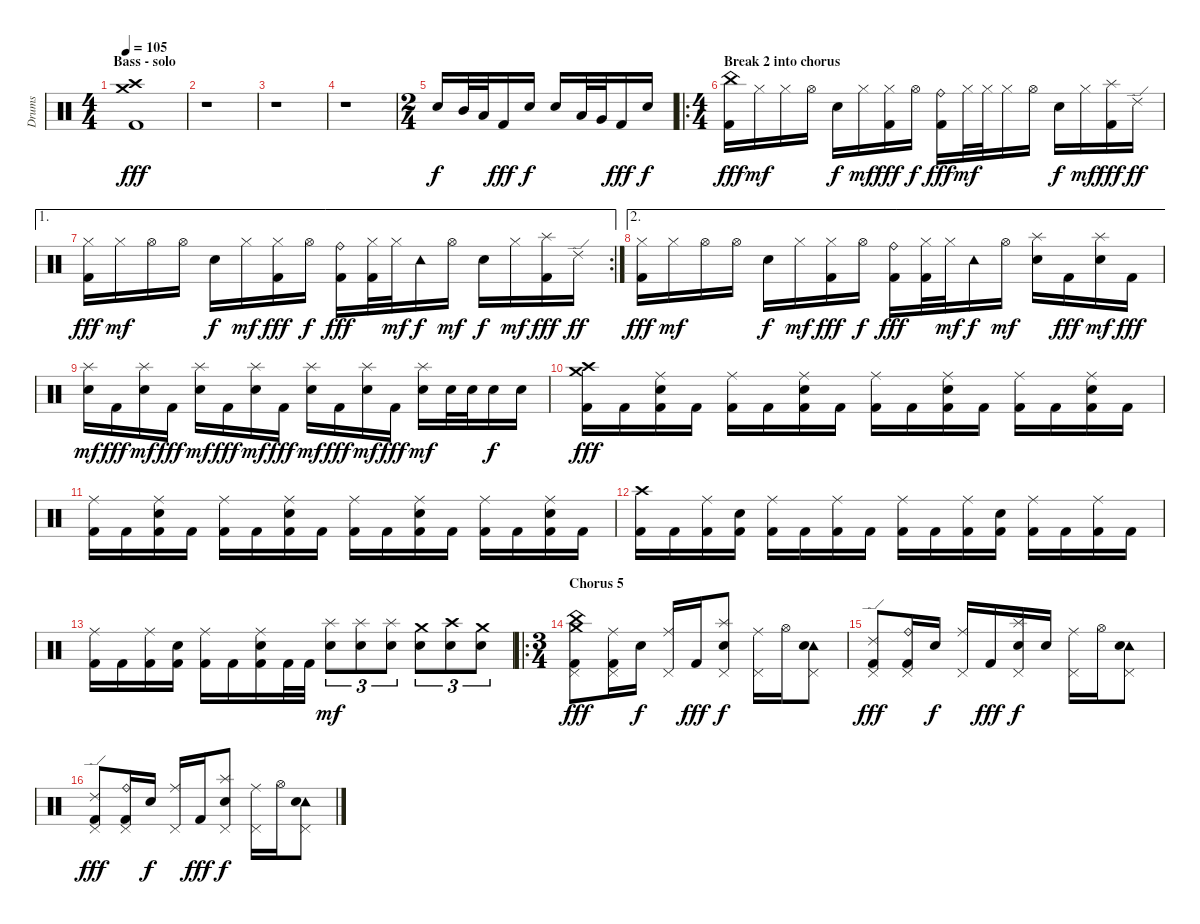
\track ("Drums" "Drums") {instrument percussion}
\staff {score}
\articulation defaults
\ts (4 4)
\section ("" "Bass - solo")
\tempo 105
\clef neutral
\ks c
("Crash medium (hit)" "Crash high (hit)" "Kick (hit) 2").1{dy fff} |
r.1 |
r.1 |
r.1 |
\ts (2 4)
"Electric Snare (hit)".16{dy f} "Mid Tom (hit)".32 "Low Tom (hit)".32 "Kick (hit) 2".16{dy fff} "Electric Snare (hit)".16{dy f} "Electric Snare (hit)".16 "Low Tom (hit)".32 "Very Low Tom (hit)".32 "Kick (hit) 2".16{dy fff} "Electric Snare (hit)".16{dy f} |
\ro
\ts (4 4)
\section ("" "Break 2 into chorus")
("China (hit)" "Kick (hit) 2").16{dy fff} "Hi-Hat (closed)".16{dy mf} "Hi-Hat (closed)".16 "Hi-Hat (open)".16 "Electric Snare (hit)".16{dy f} "Hi-Hat (closed)".16{dy mf} ("Hi-Hat (closed)" "Kick (hit) 2").16{dy fff} "Hi-Hat (open)".16{dy f} ("Ride (bell)" "Kick (hit) 2").16{dy fff} "Hi-Hat (closed)".32{dy mf} "Hi-Hat (closed)".32 "Hi-Hat (closed)".16 "Hi-Hat (open)".16 "Electric Snare (hit)".16{dy f} "Hi-Hat (closed)".16{dy mf} ("Splash (hit)" "Kick (hit) 2").16{dy fff} "Ride (edge) 2".16{dy ff} |
\ae 1
\rc 2
("Hi-Hat (closed)" "Kick (hit) 2").16{dy fff} "Hi-Hat (closed)".16{dy mf} "Hi-Hat (open)".16 "Hi-Hat (open)".16 "Electric Snare (hit)".16{dy f} "Hi-Hat (closed)".16{dy mf} ("Hi-Hat (closed)" "Kick (hit) 2").16{dy fff} "Hi-Hat (open)".16{dy f} ("Ride (bell)" "Kick (hit) 2").16{dy fff} ("Hi-Hat (closed)" "Kick (hit) 2").32 "Hi-Hat (closed)".32{dy mf} "Tambourine (hit)".16{dy f} "Hi-Hat (open)".16{dy mf} "Electric Snare (hit)".16{dy f} "Hi-Hat (closed)".16{dy mf} ("Splash (hit)" "Kick (hit) 2").16{dy fff} "Ride (edge) 2".16{dy ff} |
\ae 2
("Hi-Hat (closed)" "Kick (hit) 2").16{dy fff} "Hi-Hat (closed)".16{dy mf} "Hi-Hat (open)".16 "Hi-Hat (open)".16 "Electric Snare (hit)".16{dy f} "Hi-Hat (closed)".16{dy mf} ("Hi-Hat (closed)" "Kick (hit) 2").16{dy fff} "Hi-Hat (open)".16{dy f} ("Ride (bell)" "Kick (hit) 2").16{dy fff} ("Hi-Hat (closed)" "Kick (hit) 2").32 "Hi-Hat (closed)".32{dy mf} "Tambourine (hit)".16{dy f} "Hi-Hat (open)".16{dy mf} ("Splash (hit)" "Electric Snare (hit)").16 "Kick (hit) 2".16{dy fff} ("Splash (hit)" "Electric Snare (hit)").16{dy mf} "Kick (hit) 2".16{dy fff} |
("Splash (hit)" "Electric Snare (hit)").16{dy mf} "Kick (hit) 2".16{dy fff} ("Splash (hit)" "Electric Snare (hit)").16{dy mf} "Kick (hit) 2".16{dy fff} ("Splash (hit)" "Electric Snare (hit)").16{dy mf} "Kick (hit) 2".16{dy fff} ("Splash (hit)" "Electric Snare (hit)").16{dy mf} "Kick (hit) 2".16{dy fff} ("Splash (hit)" "Electric Snare (hit)").16{dy mf} "Kick (hit) 2".16{dy fff} ("Splash (hit)" "Electric Snare (hit)").16{dy mf} "Kick (hit) 2".16{dy fff} ("Splash (hit)" "Electric Snare (hit)").16{dy mf} "Electric Snare (hit)".32 "Electric Snare (hit)".32 "Electric Snare (hit)".16{dy f} "Electric Snare (hit)".16 |
("Crash medium (hit)" "Crash high (hit)" "Kick (hit) 2").16{dy fff} "Kick (hit) 2".16 ("Ride (middle)" "Electric Snare (hit)" "Kick (hit) 2").16 "Kick (hit) 2".16 ("Ride (middle)" "Kick (hit) 2").16 "Kick (hit) 2".16 ("Ride (middle)" "Electric Snare (hit)" "Kick (hit) 2").16 "Kick (hit) 2".16 ("Ride (middle)" "Kick (hit) 2").16 "Kick (hit) 2".16 ("Ride (middle)" "Electric Snare (hit)" "Kick (hit) 2").16 "Kick (hit) 2".16 ("Ride (middle)" "Kick (hit) 2").16 "Kick (hit) 2".16 ("Ride (middle)" "Electric Snare (hit)" "Kick (hit) 2").16 "Kick (hit) 2".16 |
("Ride (middle)" "Kick (hit) 2").16 "Kick (hit) 2".16 ("Ride (middle)" "Electric Snare (hit)" "Kick (hit) 2").16 "Kick (hit) 2".16 ("Ride (middle)" "Kick (hit) 2").16 "Kick (hit) 2".16 ("Ride (middle)" "Electric Snare (hit)" "Kick (hit) 2").16 "Kick (hit) 2".16 ("Ride (middle)" "Kick (hit) 2").16 "Kick (hit) 2".16 ("Ride (middle)" "Electric Snare (hit)" "Kick (hit) 2").16 "Kick (hit) 2".16 ("Ride (middle)" "Kick (hit) 2").16 "Kick (hit) 2".16 ("Ride (middle)" "Electric Snare (hit)" "Kick (hit) 2").16 "Kick (hit) 2".16 |
("Crash high (hit)" "Kick (hit) 2").16 "Kick (hit) 2".16 ("Ride (middle)" "Kick (hit) 2").16 ("Electric Snare (hit)" "Kick (hit) 2").16 ("Ride (middle)" "Kick (hit) 2").16 "Kick (hit) 2".16 ("Ride (middle)" "Kick (hit) 2").16 "Kick (hit) 2".16 ("Ride (middle)" "Kick (hit) 2").16 "Kick (hit) 2".16 ("Ride (middle)" "Kick (hit) 2").16 ("Electric Snare (hit)" "Kick (hit) 2").16 ("Ride (middle)" "Kick (hit) 2").16 "Kick (hit) 2".16 ("Ride (middle)" "Kick (hit) 2").16 "Kick (hit) 2".16 |
("Ride (middle)" "Kick (hit) 2").16 "Kick (hit) 2".16 ("Ride (middle)" "Kick (hit) 2").16 ("Electric Snare (hit)" "Kick (hit) 2").16 ("Ride (middle)" "Kick (hit) 2").16 "Kick (hit) 2".16 ("Ride (middle)" "Electric Snare (hit)" "Kick (hit) 2").16 "Kick (hit) 2".32 "Kick (hit) 2".32 ("Splash (hit)" "Electric Snare (hit)").8{tu (3 2) dy mf} ("Splash (hit)" "Electric Snare (hit)").8{tu (3 2)} ("Splash (hit)" "Electric Snare (hit)").8{tu (3 2)} ("Crash medium (hit)" "Electric Snare (hit)").8{tu (3 2)} ("Crash high (hit)" "Electric Snare (hit)").8{tu (3 2)} ("Crash medium (hit)" "Electric Snare (hit)").8{tu (3 2)} |
\ro
\ts (3 4)
\section ("" "Chorus 5")
("China (hit)" "Crash medium (hit)" "Pedal Hi-Hat (hit)" "Kick (hit) 2").8{dy fff} ("Ride (middle)" "Pedal Hi-Hat (hit)" "Kick (hit) 2").16 "Electric Snare (hit)".16{dy f} ("Ride (middle)" "Pedal Hi-Hat (hit)").16 "Kick (hit) 2".16{dy fff} ("Splash (hit)" "Pedal Hi-Hat (hit)" "Electric Snare (hit)").8{dy f} ("Ride (middle)" "Pedal Hi-Hat (hit)").16 "Hi-Hat (open)".16 ("Tambourine (hit)" "Pedal Hi-Hat (hit)" "Electric Snare (hit)").8 |
("Ride (edge) 2" "Pedal Hi-Hat (hit)" "Kick (hit) 2").8{dy fff} ("Ride (bell)" "Pedal Hi-Hat (hit)" "Kick (hit) 2").16 "Electric Snare (hit)".16{dy f} ("Ride (middle)" "Pedal Hi-Hat (hit)").16 "Kick (hit) 2".16{dy fff} ("Splash (hit)" "Pedal Hi-Hat (hit)" "Electric Snare (hit)").16{dy f} "Electric Snare (hit)".16 ("Ride (middle)" "Pedal Hi-Hat (hit)").16 "Hi-Hat (open)".16 ("Tambourine (hit)" "Pedal Hi-Hat (hit)" "Electric Snare (hit)").8 |
("Ride (edge) 2" "Pedal Hi-Hat (hit)" "Kick (hit) 2").8{dy fff} ("Ride (bell)" "Pedal Hi-Hat (hit)" "Kick (hit) 2").16 "Electric Snare (hit)".16{dy f} ("Ride (middle)" "Pedal Hi-Hat (hit)").16 "Kick (hit) 2".16{dy fff} ("Splash (hit)" "Pedal Hi-Hat (hit)" "Electric Snare (hit)").8{dy f} ("Ride (middle)" "Pedal Hi-Hat (hit)").16 "Hi-Hat (open)".16 ("Tambourine (hit)" "Pedal Hi-Hat (hit)" "Electric Snare (hit)").8
